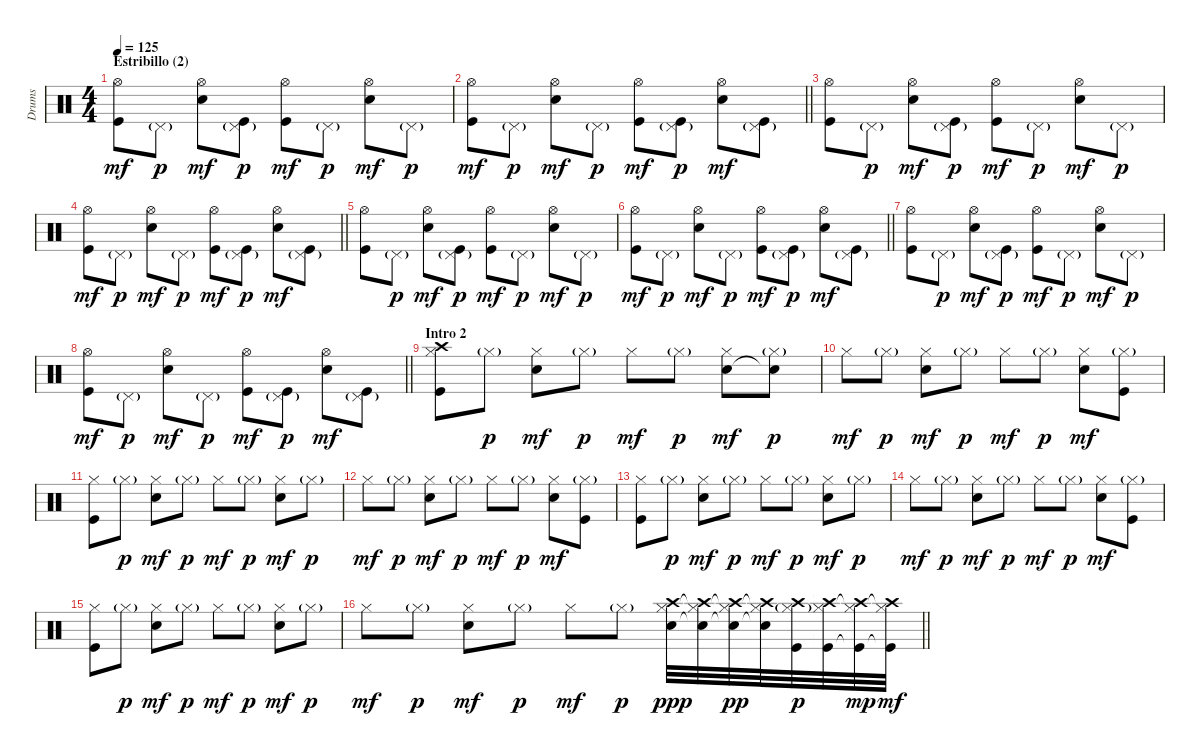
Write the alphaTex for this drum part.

\track ("Drums" "Drums") {instrument percussion}
\staff {score}
\articulation defaults
\ts (4 4)
\section ("" "Estribillo (2)")
\tempo 125
\clef neutral
\ks c
("Hi-Hat (open)" "Kick (hit)").8{dy mf} "Pedal Hi-Hat (hit)"{g}.8{dy p} ("Hi-Hat (open)" "Electric Snare (hit)").8{dy mf} ("Pedal Hi-Hat (hit)"{g} "Kick (hit)").8{dy p} ("Hi-Hat (open)" "Kick (hit)").8{dy mf} "Pedal Hi-Hat (hit)"{g}.8{dy p} ("Hi-Hat (open)" "Electric Snare (hit)").8{dy mf} "Pedal Hi-Hat (hit)"{g}.8{dy p} |
\barLineRight lightlight
("Hi-Hat (open)" "Kick (hit)").8{dy mf} "Pedal Hi-Hat (hit)"{g}.8{dy p} ("Hi-Hat (open)" "Electric Snare (hit)").8{dy mf} "Pedal Hi-Hat (hit)"{g}.8{dy p} ("Hi-Hat (open)" "Kick (hit)").8{dy mf} ("Pedal Hi-Hat (hit)"{g} "Kick (hit)").8{dy p} ("Hi-Hat (open)" "Electric Snare (hit)").8{dy mf} ("Pedal Hi-Hat (hit)"{g} "Kick (hit)").8 |
("Hi-Hat (open)" "Kick (hit)").8 "Pedal Hi-Hat (hit)"{g}.8{dy p} ("Hi-Hat (open)" "Electric Snare (hit)").8{dy mf} ("Pedal Hi-Hat (hit)"{g} "Kick (hit)").8{dy p} ("Hi-Hat (open)" "Kick (hit)").8{dy mf} "Pedal Hi-Hat (hit)"{g}.8{dy p} ("Hi-Hat (open)" "Electric Snare (hit)").8{dy mf} "Pedal Hi-Hat (hit)"{g}.8{dy p} |
\barLineRight lightlight
("Hi-Hat (open)" "Kick (hit)").8{dy mf} "Pedal Hi-Hat (hit)"{g}.8{dy p} ("Hi-Hat (open)" "Electric Snare (hit)").8{dy mf} "Pedal Hi-Hat (hit)"{g}.8{dy p} ("Hi-Hat (open)" "Kick (hit)").8{dy mf} ("Pedal Hi-Hat (hit)"{g} "Kick (hit)").8{dy p} ("Hi-Hat (open)" "Electric Snare (hit)").8{dy mf} ("Pedal Hi-Hat (hit)"{g} "Kick (hit)").8 |
("Hi-Hat (open)" "Kick (hit)").8 "Pedal Hi-Hat (hit)"{g}.8{dy p} ("Hi-Hat (open)" "Electric Snare (hit)").8{dy mf} ("Pedal Hi-Hat (hit)"{g} "Kick (hit)").8{dy p} ("Hi-Hat (open)" "Kick (hit)").8{dy mf} "Pedal Hi-Hat (hit)"{g}.8{dy p} ("Hi-Hat (open)" "Electric Snare (hit)").8{dy mf} "Pedal Hi-Hat (hit)"{g}.8{dy p} |
\barLineRight lightlight
("Hi-Hat (open)" "Kick (hit)").8{dy mf} "Pedal Hi-Hat (hit)"{g}.8{dy p} ("Hi-Hat (open)" "Electric Snare (hit)").8{dy mf} "Pedal Hi-Hat (hit)"{g}.8{dy p} ("Hi-Hat (open)" "Kick (hit)").8{dy mf} ("Pedal Hi-Hat (hit)"{g} "Kick (hit)").8{dy p} ("Hi-Hat (open)" "Electric Snare (hit)").8{dy mf} ("Pedal Hi-Hat (hit)"{g} "Kick (hit)").8 |
("Hi-Hat (open)" "Kick (hit)").8 "Pedal Hi-Hat (hit)"{g}.8{dy p} ("Hi-Hat (open)" "Electric Snare (hit)").8{dy mf} ("Pedal Hi-Hat (hit)"{g} "Kick (hit)").8{dy p} ("Hi-Hat (open)" "Kick (hit)").8{dy mf} "Pedal Hi-Hat (hit)"{g}.8{dy p} ("Hi-Hat (open)" "Electric Snare (hit)").8{dy mf} "Pedal Hi-Hat (hit)"{g}.8{dy p} |
\barLineRight lightlight
("Hi-Hat (open)" "Kick (hit)").8{dy mf} "Pedal Hi-Hat (hit)"{g}.8{dy p} ("Hi-Hat (open)" "Electric Snare (hit)").8{dy mf} "Pedal Hi-Hat (hit)"{g}.8{dy p} ("Hi-Hat (open)" "Kick (hit)").8{dy mf} ("Pedal Hi-Hat (hit)"{g} "Kick (hit)").8{dy p} ("Hi-Hat (open)" "Electric Snare (hit)").8{dy mf} ("Pedal Hi-Hat (hit)"{g} "Kick (hit)").8 |
\section ("" "Intro 2")
("Hi-Hat (closed)" "Kick (hit)" "Crash high (hit)").8 "Hi-Hat (closed)"{g}.8{dy p} ("Hi-Hat (closed)" "Electric Snare (hit)").8{dy mf} "Hi-Hat (closed)"{g}.8{dy p} "Hi-Hat (closed)".8{dy mf} "Hi-Hat (closed)"{g}.8{dy p} ("Hi-Hat (closed)" "Electric Snare (hit)").8{dy mf} ("Hi-Hat (closed)"{g} "Snare (hit)"{t}).8{dy p} |
"Hi-Hat (closed)".8{dy mf} "Hi-Hat (closed)"{g}.8{dy p} ("Hi-Hat (closed)" "Electric Snare (hit)").8{dy mf} "Hi-Hat (closed)"{g}.8{dy p} "Hi-Hat (closed)".8{dy mf} "Hi-Hat (closed)"{g}.8{dy p} ("Hi-Hat (closed)" "Electric Snare (hit)").8{dy mf} ("Hi-Hat (closed)"{g} "Kick (hit)").8 |
("Hi-Hat (closed)" "Kick (hit)").8 "Hi-Hat (closed)"{g}.8{dy p} ("Hi-Hat (closed)" "Electric Snare (hit)").8{dy mf} "Hi-Hat (closed)"{g}.8{dy p} "Hi-Hat (closed)".8{dy mf} "Hi-Hat (closed)"{g}.8{dy p} ("Hi-Hat (closed)" "Electric Snare (hit)").8{dy mf} "Hi-Hat (closed)"{g}.8{dy p} |
"Hi-Hat (closed)".8{dy mf} "Hi-Hat (closed)"{g}.8{dy p} ("Hi-Hat (closed)" "Electric Snare (hit)").8{dy mf} "Hi-Hat (closed)"{g}.8{dy p} "Hi-Hat (closed)".8{dy mf} "Hi-Hat (closed)"{g}.8{dy p} ("Hi-Hat (closed)" "Electric Snare (hit)").8{dy mf} ("Hi-Hat (closed)"{g} "Kick (hit)").8 |
("Hi-Hat (closed)" "Kick (hit)").8 "Hi-Hat (closed)"{g}.8{dy p} ("Hi-Hat (closed)" "Electric Snare (hit)").8{dy mf} "Hi-Hat (closed)"{g}.8{dy p} "Hi-Hat (closed)".8{dy mf} "Hi-Hat (closed)"{g}.8{dy p} ("Hi-Hat (closed)" "Electric Snare (hit)").8{dy mf} "Hi-Hat (closed)"{g}.8{dy p} |
"Hi-Hat (closed)".8{dy mf} "Hi-Hat (closed)"{g}.8{dy p} ("Hi-Hat (closed)" "Electric Snare (hit)").8{dy mf} "Hi-Hat (closed)"{g}.8{dy p} "Hi-Hat (closed)".8{dy mf} "Hi-Hat (closed)"{g}.8{dy p} ("Hi-Hat (closed)" "Electric Snare (hit)").8{dy mf} ("Hi-Hat (closed)"{g} "Kick (hit)").8 |
("Hi-Hat (closed)" "Kick (hit)").8 "Hi-Hat (closed)"{g}.8{dy p} ("Hi-Hat (closed)" "Electric Snare (hit)").8{dy mf} "Hi-Hat (closed)"{g}.8{dy p} "Hi-Hat (closed)".8{dy mf} "Hi-Hat (closed)"{g}.8{dy p} ("Hi-Hat (closed)" "Electric Snare (hit)").8{dy mf} "Hi-Hat (closed)"{g}.8{dy p} |
\barLineRight lightlight "Hi-Hat (closed)".8{dy mf} "Hi-Hat (closed)"{g}.8{dy p}
("Hi-Hat (closed)" "Electric Snare (hit)").8{dy mf} "Hi-Hat (closed)"{g}.8{dy p} "Hi-Hat (closed)".8{dy mf} "Hi-Hat (closed)"{g}.8{dy p} ("Hi-Hat (closed)" "Electric Snare (hit)" "Crash high (hit)").32{dy ppp} ("Hi-Hat (closed)"{t} "Electric Snare (hit)"{t} "Crash high (hit)").32 ("Hi-Hat (closed)"{t} "Electric Snare (hit)"{t} "Crash high (hit)").32{dy pp} ("Hi-Hat (closed)"{t} "Electric Snare (hit)"{t} "Crash high (hit)").32 ("Hi-Hat (closed)"{g} "Kick (hit)" "Crash high (hit)").32{dy p} ("Hi-Hat (closed)"{t} "Kick (hit)"{t} "Crash high (hit)").32 ("Hi-Hat (closed)"{t} "Kick (hit)"{t} "Crash high (hit)").32{dy mp} ("Hi-Hat (closed)"{t} "Kick (hit)"{t} "Crash high (hit)").32{dy mf}
